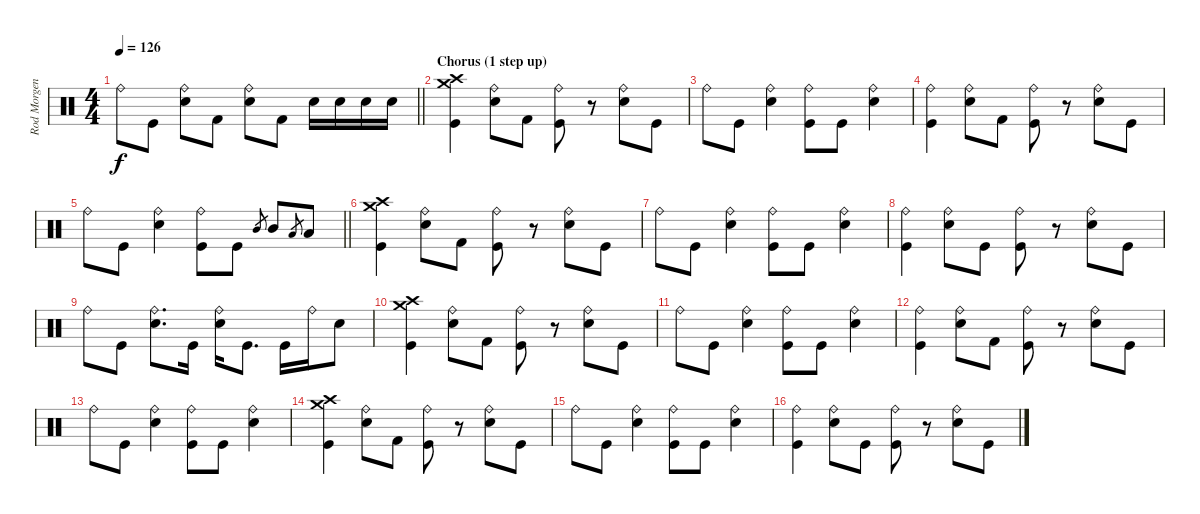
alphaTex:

\track ("Rod Morgenstein" "Rod Morgen") {instrument percussion}
\staff {score}
\articulation defaults
\ts (4 4)
\tempo 126
\clef neutral
\barLineRight lightlight
\ks c "Ride (bell)".8{dy f} "Kick (hit)".8
("Snare (hit) 2" "Ride (bell)").8 "Kick (hit) 2".8 ("Snare (hit) 2" "Ride (bell)").8 "Kick (hit) 2".8 "Snare (hit) 2".16 "Snare (hit) 2".16 "Snare (hit) 2".16 "Snare (hit) 2".16 |
\section ("" "Chorus (1 step up)")
("Crash high (hit)" "Crash medium (hit)" "Kick (hit)").4 ("Snare (hit) 2" "Ride (bell)").8 "Kick (hit) 2".8 ("Ride (bell)" "Kick (hit)").8 r.8 ("Ride (bell)" "Snare (hit) 2").8 "Kick (hit)".8 |
"Ride (bell)".8 "Kick (hit)".8 ("Snare (hit) 2" "Ride (bell)").4 ("Ride (bell)" "Kick (hit)").8 "Kick (hit)".8 ("Ride (bell)" "Snare (hit) 2").4 |
("Ride (bell)" "Kick (hit)").4 ("Snare (hit) 2" "Ride (bell)").8 "Kick (hit) 2".8 ("Ride (bell)" "Kick (hit)").8 r.8 ("Ride (bell)" "Snare (hit) 2").8 "Kick (hit)".8 |
\barLineRight lightlight "Ride (bell)".8 "Kick (hit)".8
("Snare (hit) 2" "Ride (bell)").4 ("Ride (bell)" "Kick (hit)").8 "Kick (hit)".8 "Mid Tom (hit)".8{gr} "Mid Tom (hit)".8 "Low Tom (hit)".8{gr} "Low Tom (hit)".8 |
("Crash high (hit)" "Crash medium (hit)" "Kick (hit)").4 ("Snare (hit) 2" "Ride (bell)").8 "Kick (hit) 2".8 ("Ride (bell)" "Kick (hit)").8 r.8 ("Ride (bell)" "Snare (hit) 2").8 "Kick (hit)".8 |
"Ride (bell)".8 "Kick (hit)".8 ("Snare (hit) 2" "Ride (bell)").4 ("Ride (bell)" "Kick (hit)").8 "Kick (hit)".8 ("Ride (bell)" "Snare (hit) 2").4 |
("Ride (bell)" "Kick (hit)").4 ("Snare (hit) 2" "Ride (bell)").8 "Kick (hit)".8 ("Ride (bell)" "Kick (hit)").8 r.8 ("Ride (bell)" "Snare (hit) 2").8 "Kick (hit)".8 |
"Ride (bell)".8 "Kick (hit)".8 ("Snare (hit) 2" "Ride (bell)").8{d} "Kick (hit)".16 ("Snare (hit) 2" "Ride (bell)").16 "Kick (hit)".8{d} "Kick (hit)".16 "Ride (bell)".16 "Snare (hit) 2".8 |
("Crash high (hit)" "Crash medium (hit)" "Kick (hit)").4 ("Snare (hit) 2" "Ride (bell)").8 "Kick (hit) 2".8 ("Ride (bell)" "Kick (hit)").8 r.8 ("Ride (bell)" "Snare (hit) 2").8 "Kick (hit)".8 |
"Ride (bell)".8 "Kick (hit)".8 ("Snare (hit) 2" "Ride (bell)").4 ("Ride (bell)" "Kick (hit)").8 "Kick (hit)".8 ("Ride (bell)" "Snare (hit) 2").4 |
("Ride (bell)" "Kick (hit)").4 ("Snare (hit) 2" "Ride (bell)").8 "Kick (hit) 2".8 ("Ride (bell)" "Kick (hit)").8 r.8 ("Ride (bell)" "Snare (hit) 2").8 "Kick (hit)".8 |
"Ride (bell)".8 "Kick (hit)".8 ("Snare (hit) 2" "Ride (bell)").4 ("Ride (bell)" "Kick (hit)").8 "Kick (hit)".8 ("Ride (bell)" "Snare (hit) 2").4 |
("Crash high (hit)" "Crash medium (hit)" "Kick (hit)").4{volume 6} ("Snare (hit) 2" "Ride (bell)").8 "Kick (hit) 2".8 ("Ride (bell)" "Kick (hit)").8 r.8 ("Ride (bell)" "Snare (hit) 2").8 "Kick (hit)".8 |
"Ride (bell)".8 "Kick (hit)".8 ("Snare (hit) 2" "Ride (bell)").4 ("Ride (bell)" "Kick (hit)").8 "Kick (hit)".8 ("Ride (bell)" "Snare (hit) 2").4 |
("Ride (bell)" "Kick (hit)").4 ("Snare (hit) 2" "Ride (bell)").8 "Kick (hit)".8 ("Ride (bell)" "Kick (hit)").8 r.8 ("Ride (bell)" "Snare (hit) 2").8 "Kick (hit)".8
